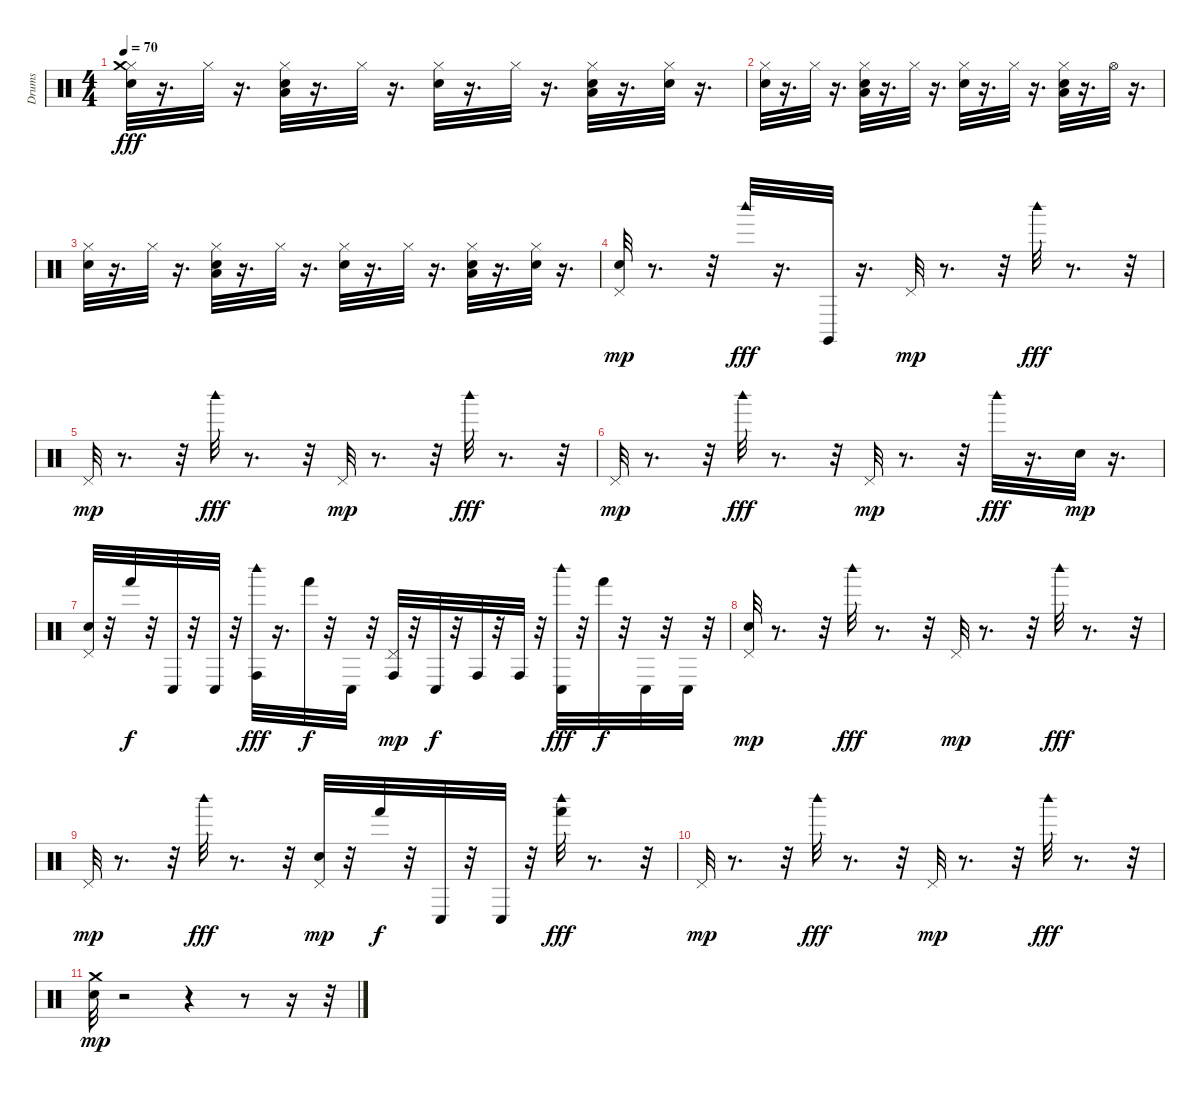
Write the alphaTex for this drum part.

\track ("Drums" "Drums") {instrument percussion}
\staff {score}
\articulation defaults
\ts (4 4)
\tempo 70
\clef neutral
\ks c
("Hi-Hat (closed)" "Crash medium (hit)" "Snare (hit)").32{dy fff} r.16{d} "Hi-Hat (closed)".32 r.16{d} ("Snare (hit) 2" "Low Floor Tom (hit)" "Hi-Hat (closed)").32 r.16{d} "Hi-Hat (closed)".32 r.16{d} ("Hi-Hat (closed)" "Snare (hit)").32 r.16{d} "Hi-Hat (closed)".32 r.16{d} ("Snare (hit) 2" "Low Floor Tom (hit)" "Hi-Hat (closed)").32 r.16{d} ("Hi-Hat (closed)" "Snare (hit)").32 r.16{d} |
("Snare (hit)" "Hi-Hat (closed)").32 r.16{d} "Hi-Hat (closed)".32 r.16{d} ("Snare (hit) 2" "Low Floor Tom (hit)" "Hi-Hat (closed)").32 r.16{d} "Hi-Hat (closed)".32 r.16{d} ("Snare (hit)" "Hi-Hat (closed)").32 r.16{d} "Hi-Hat (closed)".32 r.16{d} ("Snare (hit) 2" "Low Floor Tom (hit)" "Hi-Hat (closed)").32 r.16{d} "Hi-Hat (open)".32 r.16{d} |
("Snare (hit)" "Hi-Hat (closed)").32 r.16{d} "Hi-Hat (closed)".32 r.16{d} ("Snare (hit) 2" "Low Floor Tom (hit)" "Hi-Hat (closed)").32 r.16{d} "Hi-Hat (closed)".32 r.16{d} ("Hi-Hat (closed)" "Snare (hit)").32 r.16{d} "Hi-Hat (closed)".32 r.16{d} ("Snare (hit) 2" "Low Floor Tom (hit)" "Hi-Hat (closed)").32 r.16{d} ("Snare (hit)" "Hi-Hat (closed)").32 r.16{d} |
("Snare (hit)" "Pedal Hi-Hat (hit)").32{dy mp} r.8{d} r.32 "Woodblock high (hit)".32{dy fff} r.16{d} "Claves (hit)".32 r.16{d} "Pedal Hi-Hat (hit)".32{dy mp} r.8{d} r.32 "Woodblock high (hit)".32{dy fff} r.8{d} r.32 |
"Pedal Hi-Hat (hit)".32{dy mp} r.8{d} r.32 "Woodblock high (hit)".32{dy fff} r.8{d} r.32 "Pedal Hi-Hat (hit)".32{dy mp} r.8{d} r.32 "Woodblock high (hit)".32{dy fff} r.8{d} r.32 |
"Pedal Hi-Hat (hit)".32{dy mp} r.8{d} r.32 "Woodblock high (hit)".32{dy fff} r.8{d} r.32 "Pedal Hi-Hat (hit)".32{dy mp} r.8{d} r.32 "Woodblock high (hit)".32{dy fff} r.16{d} "Snare (hit)".32{dy mp} r.16{d} |
("Snare (hit)" "Pedal Hi-Hat (hit)").32 r.32 "Hand (hit)".32{dy f} r.32 "Conga low (hit)".32 r.32 "Conga low (hit)".32 r.32 ("Woodblock high (hit)" "Conga high (hit)").32{dy fff} r.16{d} "Hand (hit)".32{dy f} r.32 "Conga low (hit)".32 r.32 ("Pedal Hi-Hat (hit)" "Conga high (hit)").32{dy mp} r.32 "Conga low (hit)".32{dy f} r.32 "Conga high (hit)".32 r.32 "Conga high (hit)".32 r.32 ("Woodblock high (hit)" "Conga low (hit)").32{dy fff} r.32 "Hand (hit)".32{dy f} r.32 "Conga low (hit)".32 r.32 "Conga low (hit)".32 r.32 |
("Snare (hit)" "Pedal Hi-Hat (hit)").32{dy mp} r.8{d} r.32 "Woodblock high (hit)".32{dy fff} r.8{d} r.32 "Pedal Hi-Hat (hit)".32{dy mp} r.8{d} r.32 "Woodblock high (hit)".32{dy fff} r.8{d} r.32 |
"Pedal Hi-Hat (hit)".32{dy mp} r.8{d} r.32 "Woodblock high (hit)".32{dy fff} r.8{d} r.32 ("Snare (hit)" "Pedal Hi-Hat (hit)").32{dy mp} r.32 "Hand (hit)".32{dy f} r.32 "Conga low (hit)".32 r.32 "Conga low (hit)".32 r.32 ("Woodblock high (hit)" "Hand (hit)").32{dy fff} r.8{d} r.32 |
"Pedal Hi-Hat (hit)".32{dy mp} r.8{d} r.32 "Woodblock high (hit)".32{dy fff} r.8{d} r.32 "Pedal Hi-Hat (hit)".32{dy mp} r.8{d} r.32 "Woodblock high (hit)".32{dy fff} r.8{d} r.32 |
("Snare (hit)" "Crash medium (hit)").32{dy mp} r.2 r.4 r.8 r.16 r.32
